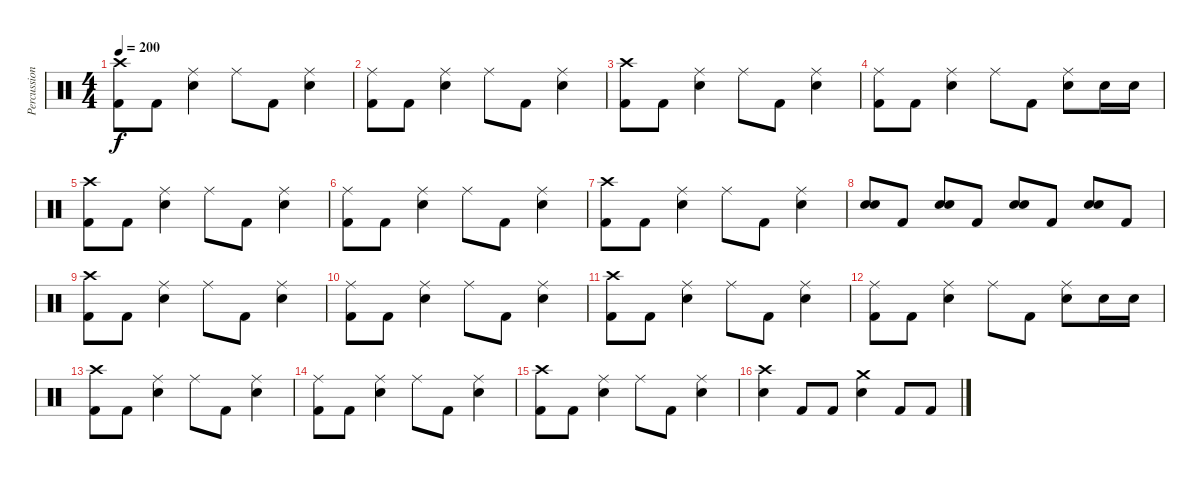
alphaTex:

\track ("Percussion" "Percussion") {instrument percussion}
\staff {score}
\articulation defaults
\ts (4 4)
\tempo 200
\clef neutral
\ks c
("Crash high (hit)" "Kick (hit) 2").8{dy f} "Kick (hit) 2".8 ("Ride (middle)" "Snare (hit) 2").4 "Ride (middle)".8 "Kick (hit) 2".8 ("Ride (middle)" "Snare (hit) 2").4 |
("Ride (middle)" "Kick (hit) 2").8 "Kick (hit) 2".8 ("Ride (middle)" "Snare (hit) 2").4 "Ride (middle)".8 "Kick (hit) 2".8 ("Ride (middle)" "Snare (hit) 2").4 |
("Crash high (hit)" "Kick (hit) 2").8 "Kick (hit) 2".8 ("Ride (middle)" "Snare (hit) 2").4 "Ride (middle)".8 "Kick (hit) 2".8 ("Ride (middle)" "Snare (hit) 2").4 |
("Ride (middle)" "Kick (hit) 2").8 "Kick (hit) 2".8 ("Ride (middle)" "Snare (hit) 2").4 "Ride (middle)".8 "Kick (hit) 2".8 ("Ride (middle)" "Snare (hit) 2").8 "Snare (hit) 2".16 "Snare (hit) 2".16 |
("Crash high (hit)" "Kick (hit) 2").8 "Kick (hit) 2".8 ("Ride (middle)" "Snare (hit) 2").4 "Ride (middle)".8 "Kick (hit) 2".8 ("Ride (middle)" "Snare (hit) 2").4 |
("Ride (middle)" "Kick (hit) 2").8 "Kick (hit) 2".8 ("Ride (middle)" "Snare (hit) 2").4 "Ride (middle)".8 "Kick (hit) 2".8 ("Ride (middle)" "Snare (hit) 2").4 |
("Crash high (hit)" "Kick (hit) 2").8 "Kick (hit) 2".8 ("Ride (middle)" "Snare (hit) 2").4 "Ride (middle)".8 "Kick (hit) 2".8 ("Ride (middle)" "Snare (hit) 2").4 |
("Snare (hit) 2" "Snare (hit) 2").8 "Kick (hit) 2".8 ("Snare (hit) 2" "Snare (hit) 2").8 "Kick (hit) 2".8 ("Snare (hit) 2" "Snare (hit) 2").8 "Kick (hit) 2".8 ("Snare (hit) 2" "Snare (hit) 2").8 "Kick (hit) 2".8 |
("Crash high (hit)" "Kick (hit) 2").8 "Kick (hit) 2".8 ("Ride (middle)" "Snare (hit) 2").4 "Ride (middle)".8 "Kick (hit) 2".8 ("Ride (middle)" "Snare (hit) 2").4 |
("Ride (middle)" "Kick (hit) 2").8 "Kick (hit) 2".8 ("Ride (middle)" "Snare (hit) 2").4 "Ride (middle)".8 "Kick (hit) 2".8 ("Ride (middle)" "Snare (hit) 2").4 |
("Crash high (hit)" "Kick (hit) 2").8 "Kick (hit) 2".8 ("Ride (middle)" "Snare (hit) 2").4 "Ride (middle)".8 "Kick (hit) 2".8 ("Ride (middle)" "Snare (hit) 2").4 |
("Ride (middle)" "Kick (hit) 2").8 "Kick (hit) 2".8 ("Ride (middle)" "Snare (hit) 2").4 "Ride (middle)".8 "Kick (hit) 2".8 ("Ride (middle)" "Snare (hit) 2").8 "Snare (hit) 2".16 "Snare (hit) 2".16 |
("Crash high (hit)" "Kick (hit) 2").8 "Kick (hit) 2".8 ("Ride (middle)" "Snare (hit) 2").4 "Ride (middle)".8 "Kick (hit) 2".8 ("Ride (middle)" "Snare (hit) 2").4 |
("Ride (middle)" "Kick (hit) 2").8 "Kick (hit) 2".8 ("Ride (middle)" "Snare (hit) 2").4 "Ride (middle)".8 "Kick (hit) 2".8 ("Ride (middle)" "Snare (hit) 2").4 |
("Crash high (hit)" "Kick (hit) 2").8 "Kick (hit) 2".8 ("Ride (middle)" "Snare (hit) 2").4 "Ride (middle)".8 "Kick (hit) 2".8 ("Ride (middle)" "Snare (hit) 2").4 |
("Crash high (hit)" "Snare (hit) 2").4 "Kick (hit) 2".8 "Kick (hit) 2".8 ("Crash medium (hit)" "Snare (hit) 2").4 "Kick (hit) 2".8 "Kick (hit) 2".8
